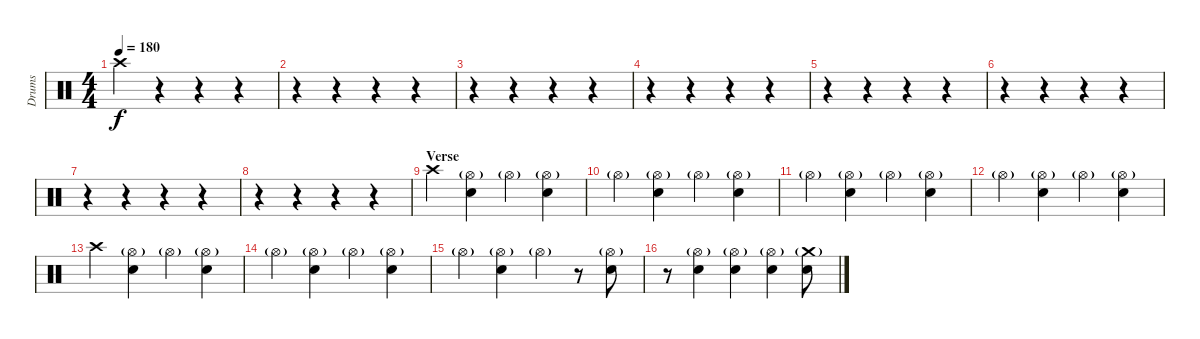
\track ("Drums" "Drums") {instrument percussion}
\staff {score}
\articulation defaults
\ts (4 4)
\tempo 180
\clef neutral
\ks c "Crash high (hit)".4{dy f}
r.4 r.4 r.4 |
r.4 r.4 r.4 r.4 |
r.4 r.4 r.4 r.4 |
r.4 r.4 r.4 r.4 |
r.4 r.4 r.4 r.4 |
r.4 r.4 r.4 r.4 |
r.4 r.4 r.4 r.4 |
r.4 r.4 r.4 r.4 |
\section ("" "Verse")
"Crash high (hit)".4 ("Hi-Hat (open)"{g} "Electric Snare (hit)").4 "Hi-Hat (open)"{g}.4 ("Hi-Hat (open)"{g} "Electric Snare (hit)").4 |
"Hi-Hat (open)"{g}.4 ("Hi-Hat (open)"{g} "Electric Snare (hit)").4 "Hi-Hat (open)"{g}.4 ("Hi-Hat (open)"{g} "Electric Snare (hit)").4 |
"Hi-Hat (open)"{g}.4 ("Hi-Hat (open)"{g} "Electric Snare (hit)").4 "Hi-Hat (open)"{g}.4 ("Hi-Hat (open)"{g} "Electric Snare (hit)").4 |
"Hi-Hat (open)"{g}.4 ("Hi-Hat (open)"{g} "Electric Snare (hit)").4 "Hi-Hat (open)"{g}.4 ("Hi-Hat (open)"{g} "Electric Snare (hit)").4 |
"Crash high (hit)".4 ("Hi-Hat (open)"{g} "Electric Snare (hit)").4 "Hi-Hat (open)"{g}.4 ("Hi-Hat (open)"{g} "Electric Snare (hit)").4 |
"Hi-Hat (open)"{g}.4 ("Hi-Hat (open)"{g} "Electric Snare (hit)").4 "Hi-Hat (open)"{g}.4 ("Hi-Hat (open)"{g} "Electric Snare (hit)").4 |
"Hi-Hat (open)"{g}.4 ("Hi-Hat (open)"{g} "Electric Snare (hit)").4 "Hi-Hat (open)"{g}.4 r.8 ("Hi-Hat (open)"{g} "Electric Snare (hit)").8 |
r.8 ("Hi-Hat (open)"{g} "Electric Snare (hit)").4 ("Hi-Hat (open)"{g} "Electric Snare (hit)").4 ("Hi-Hat (open)"{g} "Electric Snare (hit)").4 ("Crash medium (hit)"{g} "Electric Snare (hit)").8
